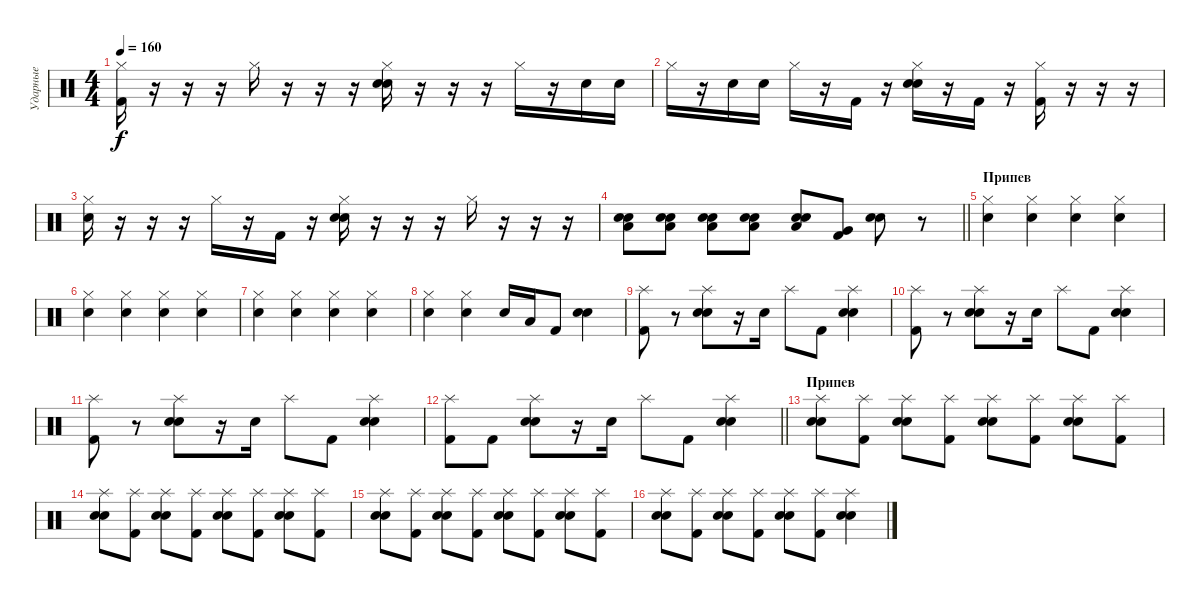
\track ("Ударные" "Ударные") {instrument percussion}
\staff {score}
\articulation defaults
\ts (4 4)
\tempo 160
\clef neutral
\ks c
("Hi-Hat (closed)" "Kick (hit) 2").16{dy f} r.16 r.16 r.16 "Hi-Hat (closed)".16 r.16 r.16 r.16 ("Hi-Hat (closed)" "Electric Snare (hit)" "Snare (hit) 2").16 r.16 r.16 r.16 "Hi-Hat (closed)".16 r.16 "Electric Snare (hit)".16 "Electric Snare (hit)".16 |
"Hi-Hat (closed)".16 r.16 "Electric Snare (hit)".16 "Electric Snare (hit)".16 "Hi-Hat (closed)".16 r.16 "Kick (hit) 2".16 r.16 ("Hi-Hat (closed)" "Electric Snare (hit)" "Snare (hit) 2").16 r.16 "Kick (hit) 2".16 r.16 ("Hi-Hat (closed)" "Kick (hit) 2").16 r.16 r.16 r.16 |
("Hi-Hat (closed)" "Electric Snare (hit)").16 r.16 r.16 r.16 "Hi-Hat (closed)".16 r.16 "Kick (hit) 2".16 r.16 ("Hi-Hat (closed)" "Electric Snare (hit)" "Snare (hit) 2").16 r.16 r.16 r.16 "Hi-Hat (closed)".16 r.16 r.16 r.16 |
\barLineRight lightlight
("Electric Snare (hit)" "Low Tom (hit)" "Snare (hit) 2").8 ("Electric Snare (hit)" "Low Tom (hit)" "Snare (hit) 2").8 ("Electric Snare (hit)" "Low Tom (hit)" "Snare (hit) 2").8 ("Electric Snare (hit)" "Low Tom (hit)" "Snare (hit) 2").8 ("Electric Snare (hit)" "Low Tom (hit)" "Snare (hit) 2").8 ("Very Low Tom (hit)" "Kick (hit) 2").8 ("Electric Snare (hit)" "Snare (hit) 2").8 r.8 |
\section ("" "Припев")
("Hi-Hat (closed)" "Electric Snare (hit)").4 ("Hi-Hat (closed)" "Electric Snare (hit)").4 ("Hi-Hat (closed)" "Electric Snare (hit)").4 ("Hi-Hat (closed)" "Electric Snare (hit)").4 |
("Hi-Hat (closed)" "Electric Snare (hit)").4 ("Hi-Hat (closed)" "Electric Snare (hit)").4 ("Hi-Hat (closed)" "Electric Snare (hit)").4 ("Hi-Hat (closed)" "Electric Snare (hit)").4 |
("Hi-Hat (closed)" "Electric Snare (hit)").4 ("Hi-Hat (closed)" "Electric Snare (hit)").4 ("Hi-Hat (closed)" "Electric Snare (hit)").4 ("Hi-Hat (closed)" "Electric Snare (hit)").4 |
("Hi-Hat (closed)" "Electric Snare (hit)").4 ("Hi-Hat (closed)" "Electric Snare (hit)").4 "Electric Snare (hit)".16 "Low Tom (hit)".16 "Kick (hit) 2".8 ("Electric Snare (hit)" "Snare (hit) 2").4 |
("Splash (hit)" "Kick (hit) 2").8 r.8 ("Splash (hit)" "Electric Snare (hit)" "Snare (hit) 2").8 r.16 "Electric Snare (hit)".16 "Splash (hit)".8 "Kick (hit) 2".8 ("Splash (hit)" "Electric Snare (hit)" "Snare (hit) 2").4 |
("Splash (hit)" "Kick (hit) 2").8 r.8 ("Splash (hit)" "Electric Snare (hit)" "Snare (hit) 2").8 r.16 "Electric Snare (hit)".16 "Splash (hit)".8 "Kick (hit) 2".8 ("Splash (hit)" "Electric Snare (hit)" "Snare (hit) 2").4 |
("Splash (hit)" "Kick (hit) 2").8 r.8 ("Splash (hit)" "Electric Snare (hit)" "Snare (hit) 2").8 r.16 "Electric Snare (hit)".16 "Splash (hit)".8 "Kick (hit) 2".8 ("Splash (hit)" "Electric Snare (hit)" "Snare (hit) 2").4 |
\barLineRight lightlight
("Splash (hit)" "Kick (hit) 2").8 "Kick (hit) 2".8 ("Splash (hit)" "Electric Snare (hit)" "Snare (hit) 2").8 r.16 "Electric Snare (hit)".16 "Splash (hit)".8 "Kick (hit) 2".8 ("Splash (hit)" "Electric Snare (hit)" "Snare (hit) 2").4 |
\section ("" "Припев")
("Splash (hit)" "Electric Snare (hit)" "Snare (hit) 2").8 ("Splash (hit)" "Kick (hit) 2").8 ("Splash (hit)" "Electric Snare (hit)" "Snare (hit) 2").8 ("Splash (hit)" "Kick (hit) 2").8 ("Splash (hit)" "Electric Snare (hit)" "Snare (hit) 2").8 ("Splash (hit)" "Kick (hit) 2").8 ("Splash (hit)" "Electric Snare (hit)" "Snare (hit) 2").8 ("Splash (hit)" "Kick (hit) 2").8 |
("Splash (hit)" "Electric Snare (hit)" "Snare (hit) 2").8 ("Splash (hit)" "Kick (hit) 2").8 ("Splash (hit)" "Electric Snare (hit)" "Snare (hit) 2").8 ("Splash (hit)" "Kick (hit) 2").8 ("Splash (hit)" "Electric Snare (hit)" "Snare (hit) 2").8 ("Splash (hit)" "Kick (hit) 2").8 ("Splash (hit)" "Electric Snare (hit)" "Snare (hit) 2").8 ("Splash (hit)" "Kick (hit) 2").8 |
("Splash (hit)" "Electric Snare (hit)" "Snare (hit) 2").8 ("Splash (hit)" "Kick (hit) 2").8 ("Splash (hit)" "Electric Snare (hit)" "Snare (hit) 2").8 ("Splash (hit)" "Kick (hit) 2").8 ("Splash (hit)" "Electric Snare (hit)" "Snare (hit) 2").8 ("Splash (hit)" "Kick (hit) 2").8 ("Splash (hit)" "Electric Snare (hit)" "Snare (hit) 2").8 ("Splash (hit)" "Kick (hit) 2").8 |
("Splash (hit)" "Electric Snare (hit)" "Snare (hit) 2").8 ("Splash (hit)" "Kick (hit) 2").8 ("Splash (hit)" "Electric Snare (hit)" "Snare (hit) 2").8 ("Splash (hit)" "Kick (hit) 2").8 ("Splash (hit)" "Electric Snare (hit)" "Snare (hit) 2").8 ("Splash (hit)" "Kick (hit) 2").8 ("Splash (hit)" "Electric Snare (hit)" "Snare (hit) 2").4
